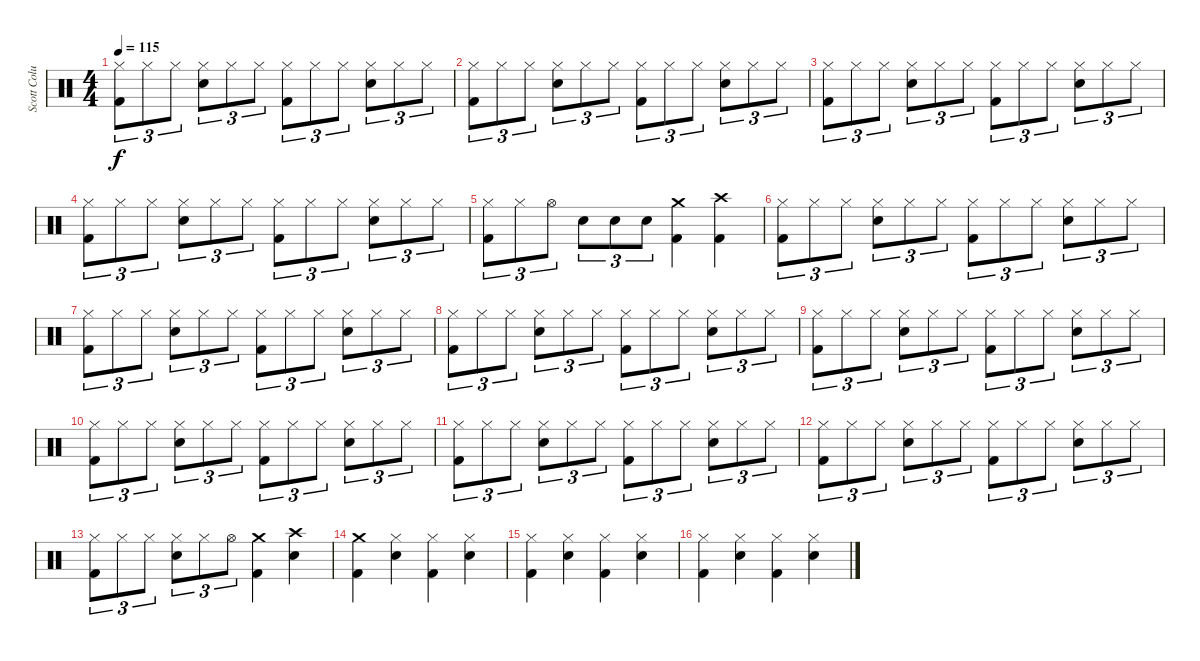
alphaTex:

\track ("Scott Columus(Drums)" "Scott Colu") {instrument percussion}
\staff {score}
\articulation defaults
\ts (4 4)
\tempo 115
\clef neutral
\ks c
("Hi-Hat (closed)" "Kick (hit) 2").8{tu (3 2) dy f} "Hi-Hat (closed)".8{tu (3 2)} "Hi-Hat (closed)".8{tu (3 2)} ("Hi-Hat (closed)" "Snare (hit) 2").8{tu (3 2)} "Hi-Hat (closed)".8{tu (3 2)} "Hi-Hat (closed)".8{tu (3 2)} ("Hi-Hat (closed)" "Kick (hit) 2").8{tu (3 2)} "Hi-Hat (closed)".8{tu (3 2)} "Hi-Hat (closed)".8{tu (3 2)} ("Hi-Hat (closed)" "Snare (hit) 2").8{tu (3 2)} "Hi-Hat (closed)".8{tu (3 2)} "Hi-Hat (closed)".8{tu (3 2)} |
("Hi-Hat (closed)" "Kick (hit) 2").8{tu (3 2)} "Hi-Hat (closed)".8{tu (3 2)} "Hi-Hat (closed)".8{tu (3 2)} ("Hi-Hat (closed)" "Snare (hit) 2").8{tu (3 2)} "Hi-Hat (closed)".8{tu (3 2)} "Hi-Hat (closed)".8{tu (3 2)} ("Hi-Hat (closed)" "Kick (hit) 2").8{tu (3 2)} "Hi-Hat (closed)".8{tu (3 2)} "Hi-Hat (closed)".8{tu (3 2)} ("Hi-Hat (closed)" "Snare (hit) 2").8{tu (3 2)} "Hi-Hat (closed)".8{tu (3 2)} "Hi-Hat (closed)".8{tu (3 2)} |
("Hi-Hat (closed)" "Kick (hit) 2").8{tu (3 2)} "Hi-Hat (closed)".8{tu (3 2)} "Hi-Hat (closed)".8{tu (3 2)} ("Hi-Hat (closed)" "Snare (hit) 2").8{tu (3 2)} "Hi-Hat (closed)".8{tu (3 2)} "Hi-Hat (closed)".8{tu (3 2)} ("Hi-Hat (closed)" "Kick (hit) 2").8{tu (3 2)} "Hi-Hat (closed)".8{tu (3 2)} "Hi-Hat (closed)".8{tu (3 2)} ("Hi-Hat (closed)" "Snare (hit) 2").8{tu (3 2)} "Hi-Hat (closed)".8{tu (3 2)} "Hi-Hat (closed)".8{tu (3 2)} |
("Hi-Hat (closed)" "Kick (hit) 2").8{tu (3 2)} "Hi-Hat (closed)".8{tu (3 2)} "Hi-Hat (closed)".8{tu (3 2)} ("Hi-Hat (closed)" "Snare (hit) 2").8{tu (3 2)} "Hi-Hat (closed)".8{tu (3 2)} "Hi-Hat (closed)".8{tu (3 2)} ("Hi-Hat (closed)" "Kick (hit) 2").8{tu (3 2)} "Hi-Hat (closed)".8{tu (3 2)} "Hi-Hat (closed)".8{tu (3 2)} ("Hi-Hat (closed)" "Snare (hit) 2").8{tu (3 2)} "Hi-Hat (closed)".8{tu (3 2)} "Hi-Hat (closed)".8{tu (3 2)} |
("Hi-Hat (closed)" "Kick (hit) 2").8{tu (3 2)} "Hi-Hat (closed)".8{tu (3 2)} "Hi-Hat (open)".8{tu (3 2)} "Snare (hit) 2".8{tu (3 2)} "Snare (hit) 2".8{tu (3 2)} "Snare (hit) 2".8{tu (3 2)} ("Crash medium (hit)" "Kick (hit) 2").4 ("Crash high (hit)" "Kick (hit) 2").4 |
("Hi-Hat (closed)" "Kick (hit) 2").8{tu (3 2)} "Hi-Hat (closed)".8{tu (3 2)} "Hi-Hat (closed)".8{tu (3 2)} ("Hi-Hat (closed)" "Snare (hit) 2").8{tu (3 2)} "Hi-Hat (closed)".8{tu (3 2)} "Hi-Hat (closed)".8{tu (3 2)} ("Hi-Hat (closed)" "Kick (hit) 2").8{tu (3 2)} "Hi-Hat (closed)".8{tu (3 2)} "Hi-Hat (closed)".8{tu (3 2)} ("Hi-Hat (closed)" "Snare (hit) 2").8{tu (3 2)} "Hi-Hat (closed)".8{tu (3 2)} "Hi-Hat (closed)".8{tu (3 2)} |
("Hi-Hat (closed)" "Kick (hit) 2").8{tu (3 2)} "Hi-Hat (closed)".8{tu (3 2)} "Hi-Hat (closed)".8{tu (3 2)} ("Hi-Hat (closed)" "Snare (hit) 2").8{tu (3 2)} "Hi-Hat (closed)".8{tu (3 2)} "Hi-Hat (closed)".8{tu (3 2)} ("Hi-Hat (closed)" "Kick (hit) 2").8{tu (3 2)} "Hi-Hat (closed)".8{tu (3 2)} "Hi-Hat (closed)".8{tu (3 2)} ("Hi-Hat (closed)" "Snare (hit) 2").8{tu (3 2)} "Hi-Hat (closed)".8{tu (3 2)} "Hi-Hat (closed)".8{tu (3 2)} |
("Hi-Hat (closed)" "Kick (hit) 2").8{tu (3 2)} "Hi-Hat (closed)".8{tu (3 2)} "Hi-Hat (closed)".8{tu (3 2)} ("Hi-Hat (closed)" "Snare (hit) 2").8{tu (3 2)} "Hi-Hat (closed)".8{tu (3 2)} "Hi-Hat (closed)".8{tu (3 2)} ("Hi-Hat (closed)" "Kick (hit) 2").8{tu (3 2)} "Hi-Hat (closed)".8{tu (3 2)} "Hi-Hat (closed)".8{tu (3 2)} ("Hi-Hat (closed)" "Snare (hit) 2").8{tu (3 2)} "Hi-Hat (closed)".8{tu (3 2)} "Hi-Hat (closed)".8{tu (3 2)} |
("Hi-Hat (closed)" "Kick (hit) 2").8{tu (3 2)} "Hi-Hat (closed)".8{tu (3 2)} "Hi-Hat (closed)".8{tu (3 2)} ("Hi-Hat (closed)" "Snare (hit) 2").8{tu (3 2)} "Hi-Hat (closed)".8{tu (3 2)} "Hi-Hat (closed)".8{tu (3 2)} ("Hi-Hat (closed)" "Kick (hit) 2").8{tu (3 2)} "Hi-Hat (closed)".8{tu (3 2)} "Hi-Hat (closed)".8{tu (3 2)} ("Hi-Hat (closed)" "Snare (hit) 2").8{tu (3 2)} "Hi-Hat (closed)".8{tu (3 2)} "Hi-Hat (closed)".8{tu (3 2)} |
("Hi-Hat (closed)" "Kick (hit) 2").8{tu (3 2)} "Hi-Hat (closed)".8{tu (3 2)} "Hi-Hat (closed)".8{tu (3 2)} ("Hi-Hat (closed)" "Snare (hit) 2").8{tu (3 2)} "Hi-Hat (closed)".8{tu (3 2)} "Hi-Hat (closed)".8{tu (3 2)} ("Hi-Hat (closed)" "Kick (hit) 2").8{tu (3 2)} "Hi-Hat (closed)".8{tu (3 2)} "Hi-Hat (closed)".8{tu (3 2)} ("Hi-Hat (closed)" "Snare (hit) 2").8{tu (3 2)} "Hi-Hat (closed)".8{tu (3 2)} "Hi-Hat (closed)".8{tu (3 2)} |
("Hi-Hat (closed)" "Kick (hit) 2").8{tu (3 2)} "Hi-Hat (closed)".8{tu (3 2)} "Hi-Hat (closed)".8{tu (3 2)} ("Hi-Hat (closed)" "Snare (hit) 2").8{tu (3 2)} "Hi-Hat (closed)".8{tu (3 2)} "Hi-Hat (closed)".8{tu (3 2)} ("Hi-Hat (closed)" "Kick (hit) 2").8{tu (3 2)} "Hi-Hat (closed)".8{tu (3 2)} "Hi-Hat (closed)".8{tu (3 2)} ("Hi-Hat (closed)" "Snare (hit) 2").8{tu (3 2)} "Hi-Hat (closed)".8{tu (3 2)} "Hi-Hat (closed)".8{tu (3 2)} |
("Hi-Hat (closed)" "Kick (hit) 2").8{tu (3 2)} "Hi-Hat (closed)".8{tu (3 2)} "Hi-Hat (closed)".8{tu (3 2)} ("Hi-Hat (closed)" "Snare (hit) 2").8{tu (3 2)} "Hi-Hat (closed)".8{tu (3 2)} "Hi-Hat (closed)".8{tu (3 2)} ("Hi-Hat (closed)" "Kick (hit) 2").8{tu (3 2)} "Hi-Hat (closed)".8{tu (3 2)} "Hi-Hat (closed)".8{tu (3 2)} ("Hi-Hat (closed)" "Snare (hit) 2").8{tu (3 2)} "Hi-Hat (closed)".8{tu (3 2)} "Hi-Hat (closed)".8{tu (3 2)} |
("Hi-Hat (closed)" "Kick (hit) 2").8{tu (3 2)} "Hi-Hat (closed)".8{tu (3 2)} "Hi-Hat (closed)".8{tu (3 2)} ("Hi-Hat (closed)" "Snare (hit) 2").8{tu (3 2)} "Hi-Hat (closed)".8{tu (3 2)} "Hi-Hat (open)".8{tu (3 2)} ("Crash medium (hit)" "Kick (hit) 2").4 ("Crash high (hit)" "Snare (hit) 2").4 |
("Crash medium (hit)" "Kick (hit) 2").4 ("Hi-Hat (closed)" "Snare (hit) 2").4 ("Hi-Hat (closed)" "Kick (hit) 2").4 ("Hi-Hat (closed)" "Snare (hit) 2").4 |
("Hi-Hat (closed)" "Kick (hit) 2").4 ("Hi-Hat (closed)" "Snare (hit) 2").4 ("Hi-Hat (closed)" "Kick (hit) 2").4 ("Hi-Hat (closed)" "Snare (hit) 2").4 |
("Hi-Hat (closed)" "Kick (hit) 2").4 ("Hi-Hat (closed)" "Snare (hit) 2").4 ("Hi-Hat (closed)" "Kick (hit) 2").4 ("Hi-Hat (closed)" "Snare (hit) 2").4
